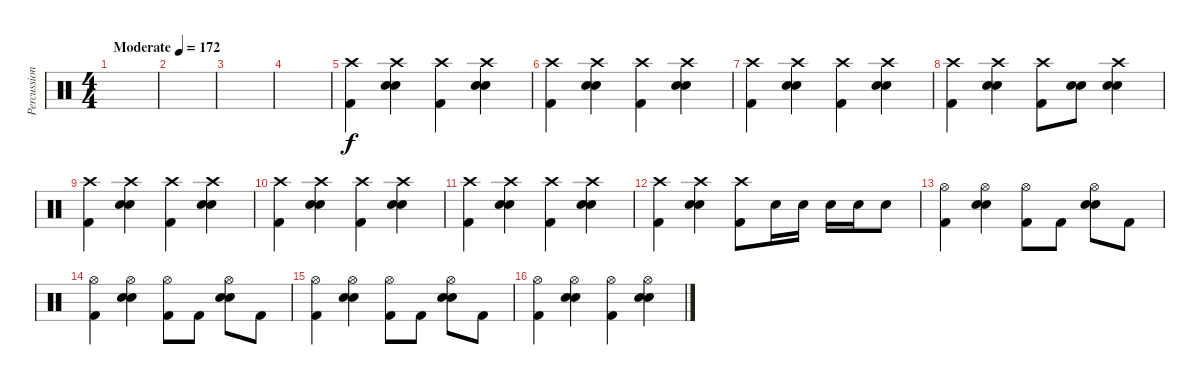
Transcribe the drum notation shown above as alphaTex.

\track ("Percussion" "Percussion") {instrument percussion}
\staff {score}
\articulation defaults
\ts (4 4)
\tempo (172 "Moderate")
\clef neutral
\ks c
|
|
|
|
("Crash high (hit)" "Kick (hit) 2").4 ("Crash high (hit)" "Snare (hit) 2" "Electric Snare (hit)").4 ("Crash high (hit)" "Kick (hit) 2").4 ("Crash high (hit)" "Snare (hit) 2" "Electric Snare (hit)").4 |
("Crash high (hit)" "Kick (hit) 2").4 ("Crash high (hit)" "Snare (hit) 2" "Electric Snare (hit)").4 ("Crash high (hit)" "Kick (hit) 2").4 ("Crash high (hit)" "Snare (hit) 2" "Electric Snare (hit)").4 |
("Crash high (hit)" "Kick (hit) 2").4 ("Crash high (hit)" "Snare (hit) 2" "Electric Snare (hit)").4 ("Crash high (hit)" "Kick (hit) 2").4 ("Crash high (hit)" "Snare (hit) 2" "Electric Snare (hit)").4 |
("Crash high (hit)" "Kick (hit) 2").4 ("Crash high (hit)" "Snare (hit) 2" "Electric Snare (hit)").4 ("Crash high (hit)" "Kick (hit) 2").8 ("Snare (hit) 2" "Electric Snare (hit)").8 ("Crash high (hit)" "Snare (hit) 2" "Electric Snare (hit)").4 |
("Crash high (hit)" "Kick (hit) 2").4 ("Crash high (hit)" "Snare (hit) 2" "Electric Snare (hit)").4 ("Crash high (hit)" "Kick (hit) 2").4 ("Crash high (hit)" "Snare (hit) 2" "Electric Snare (hit)").4 |
("Crash high (hit)" "Kick (hit) 2").4 ("Crash high (hit)" "Snare (hit) 2" "Electric Snare (hit)").4 ("Crash high (hit)" "Kick (hit) 2").4 ("Crash high (hit)" "Snare (hit) 2" "Electric Snare (hit)").4 |
("Crash high (hit)" "Kick (hit) 2").4 ("Crash high (hit)" "Snare (hit) 2" "Electric Snare (hit)").4 ("Crash high (hit)" "Kick (hit) 2").4 ("Crash high (hit)" "Snare (hit) 2" "Electric Snare (hit)").4 |
("Crash high (hit)" "Kick (hit) 2").4 ("Crash high (hit)" "Snare (hit) 2" "Electric Snare (hit)").4 ("Crash high (hit)" "Kick (hit) 2").8 "Snare (hit) 2".16 "Snare (hit) 2".16 "Snare (hit) 2".16 "Snare (hit) 2".16 "Snare (hit) 2".8 |
("Hi-Hat (open)" "Kick (hit) 2").4 ("Hi-Hat (open)" "Snare (hit) 2" "Electric Snare (hit)").4 ("Hi-Hat (open)" "Kick (hit) 2").8 "Kick (hit) 2".8 ("Hi-Hat (open)" "Snare (hit) 2" "Electric Snare (hit)").8 "Kick (hit) 2".8 |
("Hi-Hat (open)" "Kick (hit) 2").4 ("Hi-Hat (open)" "Snare (hit) 2" "Electric Snare (hit)").4 ("Hi-Hat (open)" "Kick (hit) 2").8 "Kick (hit) 2".8 ("Hi-Hat (open)" "Snare (hit) 2" "Electric Snare (hit)").8 "Kick (hit) 2".8 |
("Hi-Hat (open)" "Kick (hit) 2").4 ("Hi-Hat (open)" "Snare (hit) 2" "Electric Snare (hit)").4 ("Hi-Hat (open)" "Kick (hit) 2").8 "Kick (hit) 2".8 ("Hi-Hat (open)" "Snare (hit) 2" "Electric Snare (hit)").8 "Kick (hit) 2".8 |
("Hi-Hat (open)" "Kick (hit) 2").4 ("Hi-Hat (open)" "Snare (hit) 2" "Electric Snare (hit)").4 ("Hi-Hat (open)" "Kick (hit) 2").4 ("Hi-Hat (open)" "Snare (hit) 2" "Electric Snare (hit)").4
